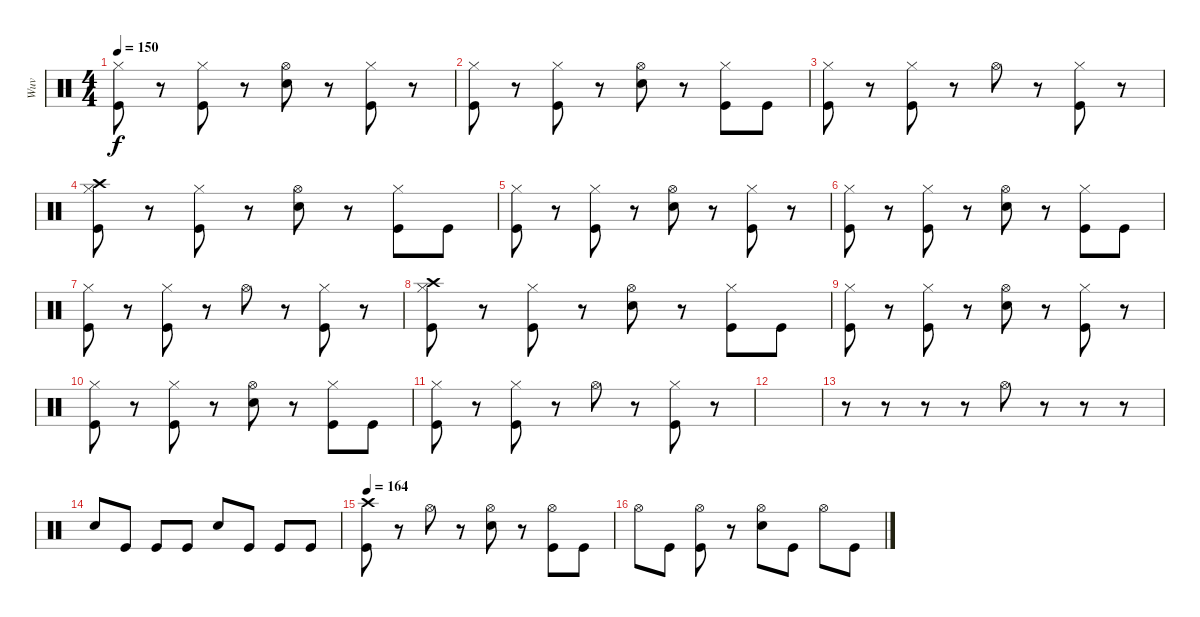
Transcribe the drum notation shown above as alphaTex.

\track ("Wuv" "Wuv") {instrument percussion}
\staff {score}
\articulation defaults
\ts (4 4)
\tempo 150
\clef neutral
\ks c
("Hi-Hat (closed)" "Kick (hit)").8{dy f} r.8 ("Hi-Hat (closed)" "Kick (hit)").8 r.8 ("Hi-Hat (open)" "Snare (hit) 2").8 r.8 ("Hi-Hat (closed)" "Kick (hit)").8 r.8 |
("Hi-Hat (closed)" "Kick (hit)").8 r.8 ("Hi-Hat (closed)" "Kick (hit)").8 r.8 ("Hi-Hat (open)" "Snare (hit) 2").8 r.8 ("Hi-Hat (closed)" "Kick (hit)").8 "Kick (hit)".8 |
("Hi-Hat (closed)" "Kick (hit)").8 r.8 ("Hi-Hat (closed)" "Kick (hit)").8 r.8 "Hi-Hat (open)".8 r.8 ("Hi-Hat (closed)" "Kick (hit)").8 r.8 |
("Hi-Hat (closed)" "Crash high (hit)" "Kick (hit)").8 r.8 ("Hi-Hat (closed)" "Kick (hit)").8 r.8 ("Hi-Hat (open)" "Snare (hit) 2").8 r.8 ("Hi-Hat (closed)" "Kick (hit)").8 "Kick (hit)".8 |
("Hi-Hat (closed)" "Kick (hit)").8 r.8 ("Hi-Hat (closed)" "Kick (hit)").8 r.8 ("Hi-Hat (open)" "Snare (hit) 2").8 r.8 ("Hi-Hat (closed)" "Kick (hit)").8 r.8 |
("Hi-Hat (closed)" "Kick (hit)").8 r.8 ("Hi-Hat (closed)" "Kick (hit)").8 r.8 ("Hi-Hat (open)" "Snare (hit) 2").8 r.8 ("Hi-Hat (closed)" "Kick (hit)").8 "Kick (hit)".8 |
("Hi-Hat (closed)" "Kick (hit)").8 r.8 ("Hi-Hat (closed)" "Kick (hit)").8 r.8 "Hi-Hat (open)".8 r.8 ("Hi-Hat (closed)" "Kick (hit)").8 r.8 |
("Hi-Hat (closed)" "Crash high (hit)" "Kick (hit)").8 r.8 ("Hi-Hat (closed)" "Kick (hit)").8 r.8 ("Hi-Hat (open)" "Snare (hit) 2").8 r.8 ("Hi-Hat (closed)" "Kick (hit)").8 "Kick (hit)".8 |
("Hi-Hat (closed)" "Kick (hit)").8 r.8 ("Hi-Hat (closed)" "Kick (hit)").8 r.8 ("Hi-Hat (open)" "Snare (hit) 2").8 r.8 ("Hi-Hat (closed)" "Kick (hit)").8 r.8 |
("Hi-Hat (closed)" "Kick (hit)").8 r.8 ("Hi-Hat (closed)" "Kick (hit)").8 r.8 ("Hi-Hat (open)" "Snare (hit) 2").8 r.8 ("Hi-Hat (closed)" "Kick (hit)").8 "Kick (hit)".8 |
("Hi-Hat (closed)" "Kick (hit)").8 r.8 ("Hi-Hat (closed)" "Kick (hit)").8 r.8 "Hi-Hat (open)".8 r.8 ("Hi-Hat (closed)" "Kick (hit)").8 r.8 |
|
r.8 r.8 r.8 r.8 "Hi-Hat (open)".8 r.8 r.8 r.8 |
"Snare (hit) 2".8 "Kick (hit)".8 "Kick (hit)".8 "Kick (hit)".8 "Snare (hit) 2".8 "Kick (hit)".8 "Kick (hit)".8 "Kick (hit)".8 |
\tempo 164
("Crash high (hit)" "Kick (hit)").8 r.8 "Hi-Hat (open)".8 r.8 ("Hi-Hat (open)" "Snare (hit) 2").8 r.8 ("Hi-Hat (open)" "Kick (hit)").8 "Kick (hit)".8 |
"Hi-Hat (open)".8 "Kick (hit)".8 ("Hi-Hat (open)" "Kick (hit)").8 r.8 ("Hi-Hat (open)" "Snare (hit) 2").8 "Kick (hit)".8 "Hi-Hat (open)".8 "Kick (hit)".8
